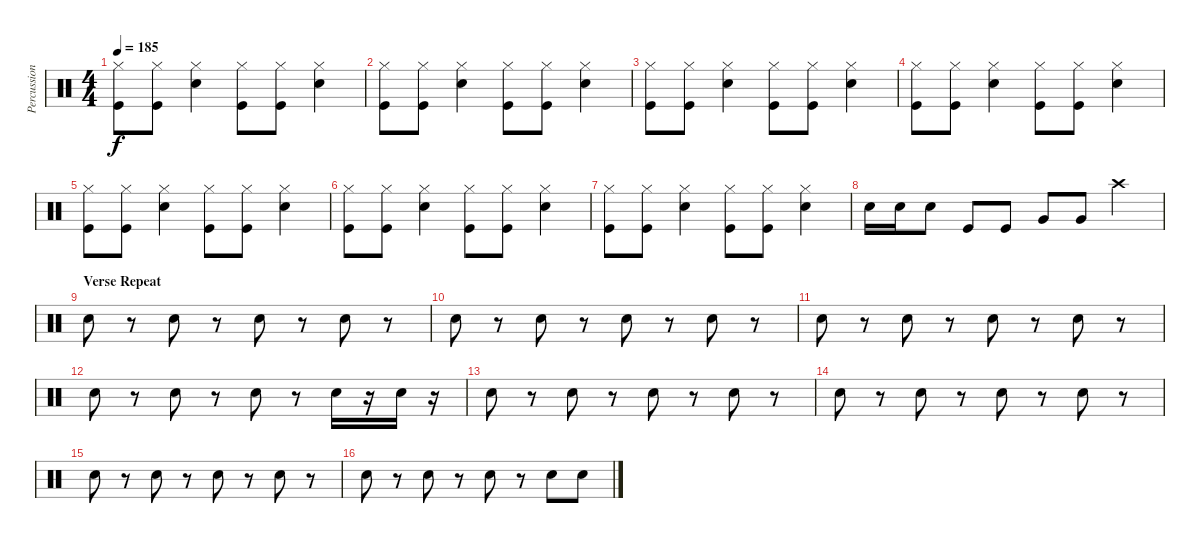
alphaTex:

\track ("Percussion" "Percussion") {instrument percussion}
\staff {score}
\articulation defaults
\ts (4 4)
\tempo 185
\clef neutral
\ks c
("Hi-Hat (closed)" "Kick (hit)").8{dy f} ("Hi-Hat (closed)" "Kick (hit)").8 ("Hi-Hat (closed)" "Snare (hit) 2").4 ("Hi-Hat (closed)" "Kick (hit)").8 ("Hi-Hat (closed)" "Kick (hit)").8 ("Hi-Hat (closed)" "Snare (hit) 2").4 |
("Hi-Hat (closed)" "Kick (hit)").8 ("Hi-Hat (closed)" "Kick (hit)").8 ("Hi-Hat (closed)" "Snare (hit) 2").4 ("Hi-Hat (closed)" "Kick (hit)").8 ("Hi-Hat (closed)" "Kick (hit)").8 ("Hi-Hat (closed)" "Snare (hit) 2").4 |
("Hi-Hat (closed)" "Kick (hit)").8 ("Hi-Hat (closed)" "Kick (hit)").8 ("Hi-Hat (closed)" "Snare (hit) 2").4 ("Hi-Hat (closed)" "Kick (hit)").8 ("Hi-Hat (closed)" "Kick (hit)").8 ("Hi-Hat (closed)" "Snare (hit) 2").4 |
("Hi-Hat (closed)" "Kick (hit)").8 ("Hi-Hat (closed)" "Kick (hit)").8 ("Hi-Hat (closed)" "Snare (hit) 2").4 ("Hi-Hat (closed)" "Kick (hit)").8 ("Hi-Hat (closed)" "Kick (hit)").8 ("Hi-Hat (closed)" "Snare (hit) 2").4 |
("Hi-Hat (closed)" "Kick (hit)").8 ("Hi-Hat (closed)" "Kick (hit)").8 ("Hi-Hat (closed)" "Snare (hit) 2").4 ("Hi-Hat (closed)" "Kick (hit)").8 ("Hi-Hat (closed)" "Kick (hit)").8 ("Hi-Hat (closed)" "Snare (hit) 2").4 |
("Hi-Hat (closed)" "Kick (hit)").8 ("Hi-Hat (closed)" "Kick (hit)").8 ("Hi-Hat (closed)" "Snare (hit) 2").4 ("Hi-Hat (closed)" "Kick (hit)").8 ("Hi-Hat (closed)" "Kick (hit)").8 ("Hi-Hat (closed)" "Snare (hit) 2").4 |
("Hi-Hat (closed)" "Kick (hit)").8 ("Hi-Hat (closed)" "Kick (hit)").8 ("Hi-Hat (closed)" "Snare (hit) 2").4 ("Hi-Hat (closed)" "Kick (hit)").8 ("Hi-Hat (closed)" "Kick (hit)").8 ("Hi-Hat (closed)" "Snare (hit) 2").4 |
"Snare (hit) 2".16 "Snare (hit) 2".16 "Snare (hit) 2".8 "Kick (hit)".8 "Kick (hit)".8 "Very Low Tom (hit)".8 "Very Low Tom (hit)".8 "Crash high (hit)".4 |
\section ("" "Verse Repeat")
"Snare (hit) 2".8 r.8 "Snare (hit) 2".8 r.8 "Snare (hit) 2".8 r.8 "Snare (hit) 2".8 r.8 |
"Snare (hit) 2".8 r.8 "Snare (hit) 2".8 r.8 "Snare (hit) 2".8 r.8 "Snare (hit) 2".8 r.8 |
"Snare (hit) 2".8 r.8 "Snare (hit) 2".8 r.8 "Snare (hit) 2".8 r.8 "Snare (hit) 2".8 r.8 |
"Snare (hit) 2".8 r.8 "Snare (hit) 2".8 r.8 "Snare (hit) 2".8 r.8 "Snare (hit) 2".16 r.16 "Snare (hit) 2".16 r.16 |
"Snare (hit) 2".8 r.8 "Snare (hit) 2".8 r.8 "Snare (hit) 2".8 r.8 "Snare (hit) 2".8 r.8 |
"Snare (hit) 2".8 r.8 "Snare (hit) 2".8 r.8 "Snare (hit) 2".8 r.8 "Snare (hit) 2".8 r.8 |
"Snare (hit) 2".8 r.8 "Snare (hit) 2".8 r.8 "Snare (hit) 2".8 r.8 "Snare (hit) 2".8 r.8 |
"Snare (hit) 2".8 r.8 "Snare (hit) 2".8 r.8 "Snare (hit) 2".8 r.8 "Snare (hit) 2".8 "Snare (hit) 2".8
